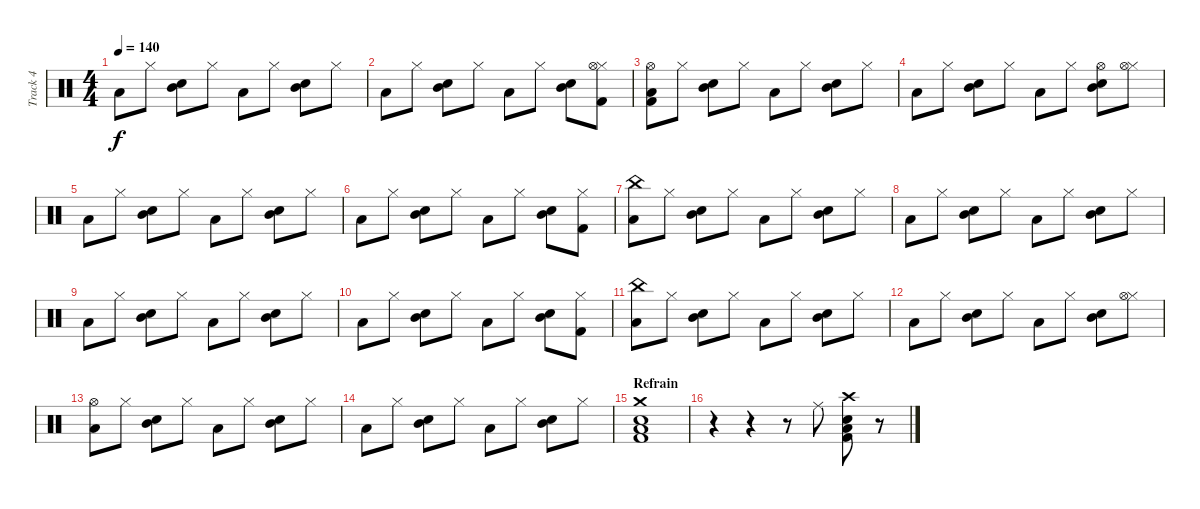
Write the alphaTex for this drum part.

\track ("Track 4" "Track 4") {instrument percussion}
\staff {score}
\articulation defaults
\ts (4 4)
\tempo 140
\clef neutral
\ks c "Low Tom (hit)".8{dy f} "Hi-Hat (closed)".8
("Mid Tom (hit)" "Snare (hit) 2").8 "Hi-Hat (closed)".8 "Low Tom (hit)".8 "Hi-Hat (closed)".8 ("Mid Tom (hit)" "Snare (hit) 2").8 "Hi-Hat (closed)".8 |
"Low Tom (hit)".8 "Hi-Hat (closed)".8 ("Mid Tom (hit)" "Snare (hit) 2").8 "Hi-Hat (closed)".8 "Low Tom (hit)".8 "Hi-Hat (closed)".8 ("Mid Tom (hit)" "Snare (hit) 2").8 ("Hi-Hat (closed)" "Kick (hit) 2" "Hi-Hat (open)").8 |
("Low Tom (hit)" "Kick (hit) 2" "Hi-Hat (open)").8 "Hi-Hat (closed)".8 ("Mid Tom (hit)" "Snare (hit) 2").8 "Hi-Hat (closed)".8 "Low Tom (hit)".8 "Hi-Hat (closed)".8 ("Mid Tom (hit)" "Snare (hit) 2").8 "Hi-Hat (closed)".8 |
"Low Tom (hit)".8 "Hi-Hat (closed)".8 ("Mid Tom (hit)" "Snare (hit) 2").8 "Hi-Hat (closed)".8 "Low Tom (hit)".8 "Hi-Hat (closed)".8 ("Mid Tom (hit)" "Snare (hit) 2" "Hi-Hat (open)").8 ("Hi-Hat (closed)" "Hi-Hat (open)").8 |
"Low Tom (hit)".8 "Hi-Hat (closed)".8 ("Mid Tom (hit)" "Snare (hit) 2").8 "Hi-Hat (closed)".8 "Low Tom (hit)".8 "Hi-Hat (closed)".8 ("Mid Tom (hit)" "Snare (hit) 2").8 "Hi-Hat (closed)".8 |
"Low Tom (hit)".8 "Hi-Hat (closed)".8 ("Mid Tom (hit)" "Snare (hit) 2").8 "Hi-Hat (closed)".8 "Low Tom (hit)".8 "Hi-Hat (closed)".8 ("Mid Tom (hit)" "Snare (hit) 2").8 ("Hi-Hat (closed)" "Kick (hit) 2").8 |
("Low Tom (hit)" "China (hit)").8 "Hi-Hat (closed)".8 ("Mid Tom (hit)" "Snare (hit) 2").8 "Hi-Hat (closed)".8 "Low Tom (hit)".8 "Hi-Hat (closed)".8 ("Mid Tom (hit)" "Snare (hit) 2").8 "Hi-Hat (closed)".8 |
"Low Tom (hit)".8 "Hi-Hat (closed)".8 ("Mid Tom (hit)" "Snare (hit) 2").8 "Hi-Hat (closed)".8 "Low Tom (hit)".8 "Hi-Hat (closed)".8 ("Mid Tom (hit)" "Snare (hit) 2").8 "Hi-Hat (closed)".8 |
"Low Tom (hit)".8 "Hi-Hat (closed)".8 ("Mid Tom (hit)" "Snare (hit) 2").8 "Hi-Hat (closed)".8 "Low Tom (hit)".8 "Hi-Hat (closed)".8 ("Mid Tom (hit)" "Snare (hit) 2").8 "Hi-Hat (closed)".8 |
"Low Tom (hit)".8 "Hi-Hat (closed)".8 ("Mid Tom (hit)" "Snare (hit) 2").8 "Hi-Hat (closed)".8 "Low Tom (hit)".8 "Hi-Hat (closed)".8 ("Mid Tom (hit)" "Snare (hit) 2").8 ("Hi-Hat (closed)" "Kick (hit) 2").8 |
("Low Tom (hit)" "China (hit)").8 "Hi-Hat (closed)".8 ("Mid Tom (hit)" "Snare (hit) 2").8 "Hi-Hat (closed)".8 "Low Tom (hit)".8 "Hi-Hat (closed)".8 ("Mid Tom (hit)" "Snare (hit) 2").8 "Hi-Hat (closed)".8 |
"Low Tom (hit)".8 "Hi-Hat (closed)".8 ("Mid Tom (hit)" "Snare (hit) 2").8 "Hi-Hat (closed)".8 "Low Tom (hit)".8 "Hi-Hat (closed)".8 ("Mid Tom (hit)" "Snare (hit) 2").8 ("Hi-Hat (closed)" "Hi-Hat (open)").8 |
("Low Tom (hit)" "Hi-Hat (open)").8 "Hi-Hat (closed)".8 ("Mid Tom (hit)" "Snare (hit) 2").8 "Hi-Hat (closed)".8 "Low Tom (hit)".8 "Hi-Hat (closed)".8 ("Mid Tom (hit)" "Snare (hit) 2").8 "Hi-Hat (closed)".8 |
"Low Tom (hit)".8 "Hi-Hat (closed)".8 ("Mid Tom (hit)" "Snare (hit) 2").8 "Hi-Hat (closed)".8 "Low Tom (hit)".8 "Hi-Hat (closed)".8 ("Mid Tom (hit)" "Snare (hit) 2").8 "Hi-Hat (closed)".8 |
\section ("" "Refrain")
("Low Tom (hit)" "Kick (hit) 2" "Snare (hit) 2" "Crash medium (hit)").1 |
r.4 r.4 r.8 "Ride (middle)".8 ("Low Floor Tom (hit)" "Snare (hit) 2" "Crash high (hit)" "Kick (hit) 2").8 r.8
